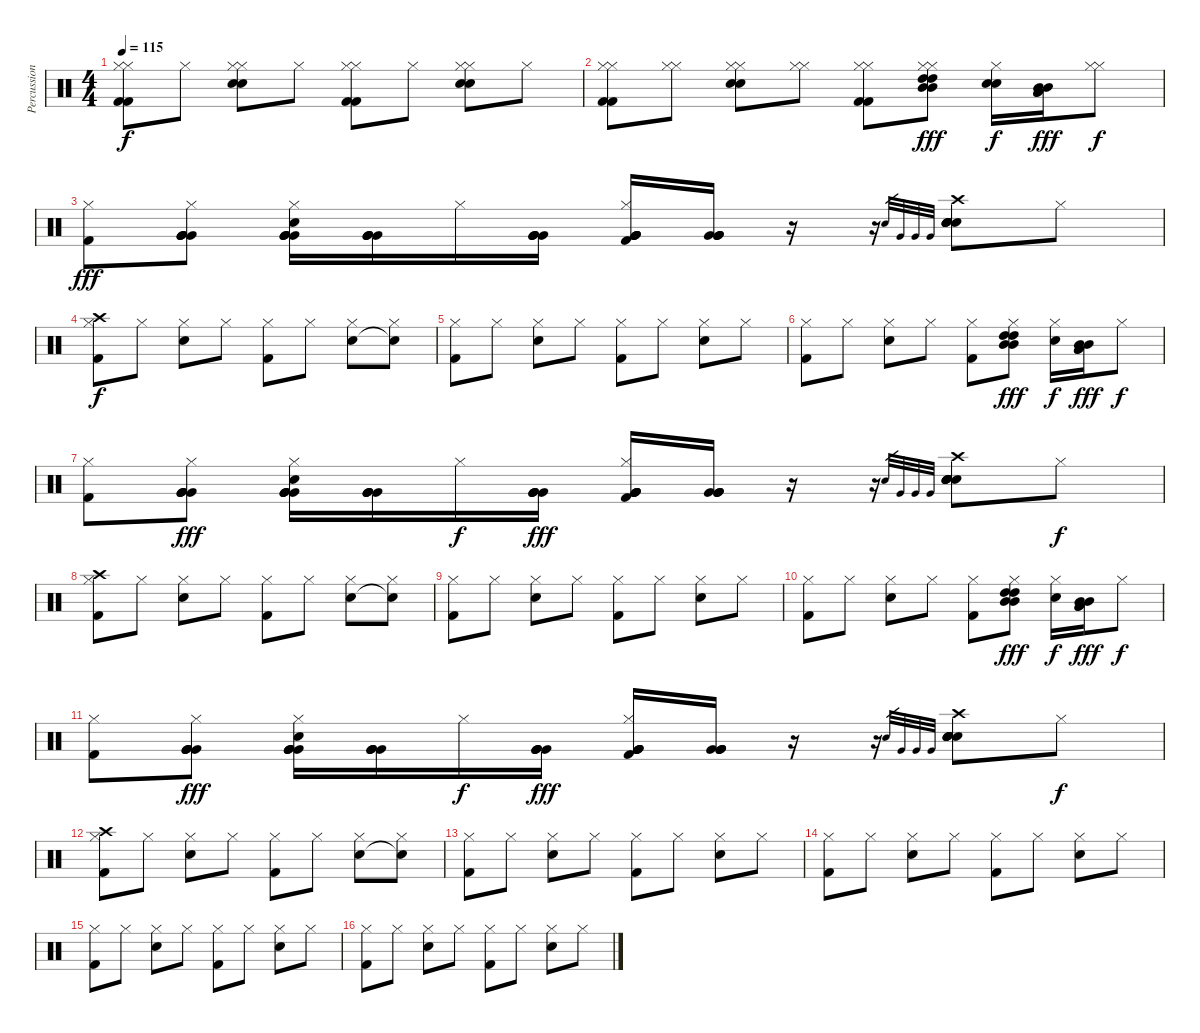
\track ("Percussion" "Percussion") {instrument percussion}
\staff {score}
\articulation defaults
\ts (4 4)
\tempo 115
\clef neutral
\ks c
("Kick (hit) 2" "Kick (hit) 2" "Hi-Hat (closed)" "Hi-Hat (closed)").8{dy f} "Hi-Hat (closed)".8 ("Electric Snare (hit)" "Electric Snare (hit)" "Hi-Hat (closed)" "Hi-Hat (closed)").8 "Hi-Hat (closed)".8 ("Kick (hit) 2" "Kick (hit) 2" "Hi-Hat (closed)" "Hi-Hat (closed)").8 "Hi-Hat (closed)".8 ("Electric Snare (hit)" "Electric Snare (hit)" "Hi-Hat (closed)" "Hi-Hat (closed)").8 "Hi-Hat (closed)".8 |
("Hi-Hat (closed)" "Kick (hit) 2" "Kick (hit) 2" "Hi-Hat (closed)").8 ("Hi-Hat (closed)" "Hi-Hat (closed)").8 ("Hi-Hat (closed)" "Electric Snare (hit)" "Electric Snare (hit)" "Hi-Hat (closed)").8 ("Hi-Hat (closed)" "Hi-Hat (closed)").8 ("Hi-Hat (closed)" "Kick (hit) 2" "Kick (hit) 2" "Hi-Hat (closed)").8 ("Hi-Hat (closed)" "Hi-Hat (closed)" "High Tom (hit)" "High Tom (hit)" "Mid Tom (hit)" "Mid Tom (hit)").8{dy fff} ("Hi-Hat (closed)" "Electric Snare (hit)" "Electric Snare (hit)").16{dy f} ("Mid Tom (hit)" "Mid Tom (hit)" "Low Tom (hit)" "Low Tom (hit)").16{dy fff} ("Hi-Hat (closed)" "Hi-Hat (closed)").8{dy f} |
("Hi-Hat (closed)" "Kick (hit) 2").8{dy fff} ("Hi-Hat (closed)" "Very Low Tom (hit)" "Very Low Tom (hit)" "Very Low Tom (hit)" "Very Low Tom (hit)").8 ("Hi-Hat (closed)" "Electric Snare (hit)" "Very Low Tom (hit)" "Very Low Tom (hit)" "Very Low Tom (hit)" "Very Low Tom (hit)").16 ("Very Low Tom (hit)" "Very Low Tom (hit)" "Very Low Tom (hit)" "Very Low Tom (hit)").16 "Hi-Hat (closed)".16 ("Very Low Tom (hit)" "Very Low Tom (hit)" "Very Low Tom (hit)" "Very Low Tom (hit)").16 ("Hi-Hat (closed)" "Kick (hit) 2" "Very Low Tom (hit)" "Very Low Tom (hit)" "Very Low Tom (hit)" "Very Low Tom (hit)").16 ("Very Low Tom (hit)" "Very Low Tom (hit)" "Very Low Tom (hit)" "Very Low Tom (hit)").16 r.16 r.16 "Snare (hit)".32{gr} "Very Low Tom (hit)".32{gr} "Very Low Tom (hit)".32{gr} "Very Low Tom (hit)".32{gr} ("Crash high (hit)" "Electric Snare (hit)" "Electric Snare (hit)" "Electric Snare (hit)" "Electric Snare (hit)" "Electric Snare (hit)").8 "Hi-Hat (closed)".8 |
("Hi-Hat (closed)" "Kick (hit) 2" "Crash high (hit)").8{dy f} "Hi-Hat (closed)".8 ("Hi-Hat (closed)" "Electric Snare (hit)").8 "Hi-Hat (closed)".8 ("Hi-Hat (closed)" "Kick (hit) 2").8 "Hi-Hat (closed)".8 ("Hi-Hat (closed)" "Electric Snare (hit)").8 ("Hi-Hat (closed)" "Snare (hit)"{t}).8 |
("Hi-Hat (closed)" "Kick (hit) 2").8 "Hi-Hat (closed)".8 ("Hi-Hat (closed)" "Electric Snare (hit)").8 "Hi-Hat (closed)".8 ("Hi-Hat (closed)" "Kick (hit) 2").8 "Hi-Hat (closed)".8 ("Hi-Hat (closed)" "Electric Snare (hit)").8 "Hi-Hat (closed)".8 |
("Hi-Hat (closed)" "Kick (hit) 2").8 "Hi-Hat (closed)".8 ("Hi-Hat (closed)" "Electric Snare (hit)").8 "Hi-Hat (closed)".8 ("Hi-Hat (closed)" "Kick (hit) 2").8 ("Hi-Hat (closed)" "High Tom (hit)" "High Tom (hit)" "Mid Tom (hit)" "Mid Tom (hit)").8{dy fff} ("Hi-Hat (closed)" "Electric Snare (hit)").16{dy f} ("Mid Tom (hit)" "Mid Tom (hit)" "Low Tom (hit)" "Low Tom (hit)").16{dy fff} "Hi-Hat (closed)".8{dy f} |
("Hi-Hat (closed)" "Kick (hit) 2").8 ("Hi-Hat (closed)" "Very Low Tom (hit)" "Very Low Tom (hit)" "Very Low Tom (hit)" "Very Low Tom (hit)").8{dy fff} ("Hi-Hat (closed)" "Electric Snare (hit)" "Very Low Tom (hit)" "Very Low Tom (hit)" "Very Low Tom (hit)" "Very Low Tom (hit)").16 ("Very Low Tom (hit)" "Very Low Tom (hit)" "Very Low Tom (hit)" "Very Low Tom (hit)").16 "Hi-Hat (closed)".16{dy f} ("Very Low Tom (hit)" "Very Low Tom (hit)" "Very Low Tom (hit)" "Very Low Tom (hit)").16{dy fff} ("Hi-Hat (closed)" "Kick (hit) 2" "Very Low Tom (hit)" "Very Low Tom (hit)" "Very Low Tom (hit)" "Very Low Tom (hit)").16 ("Very Low Tom (hit)" "Very Low Tom (hit)" "Very Low Tom (hit)" "Very Low Tom (hit)").16 r.16 r.16 "Snare (hit)".32{gr} "Very Low Tom (hit)".32{gr} "Very Low Tom (hit)".32{gr} "Very Low Tom (hit)".32{gr} ("Crash high (hit)" "Electric Snare (hit)" "Electric Snare (hit)" "Electric Snare (hit)" "Electric Snare (hit)" "Electric Snare (hit)").8 "Hi-Hat (closed)".8{dy f} |
("Hi-Hat (closed)" "Kick (hit) 2" "Crash high (hit)").8 "Hi-Hat (closed)".8 ("Hi-Hat (closed)" "Electric Snare (hit)").8 "Hi-Hat (closed)".8 ("Hi-Hat (closed)" "Kick (hit) 2").8 "Hi-Hat (closed)".8 ("Hi-Hat (closed)" "Electric Snare (hit)").8 ("Hi-Hat (closed)" "Snare (hit)"{t}).8 |
("Hi-Hat (closed)" "Kick (hit) 2").8 "Hi-Hat (closed)".8 ("Hi-Hat (closed)" "Electric Snare (hit)").8 "Hi-Hat (closed)".8 ("Hi-Hat (closed)" "Kick (hit) 2").8 "Hi-Hat (closed)".8 ("Hi-Hat (closed)" "Electric Snare (hit)").8 "Hi-Hat (closed)".8 |
("Hi-Hat (closed)" "Kick (hit) 2").8 "Hi-Hat (closed)".8 ("Hi-Hat (closed)" "Electric Snare (hit)").8 "Hi-Hat (closed)".8 ("Hi-Hat (closed)" "Kick (hit) 2").8 ("Hi-Hat (closed)" "High Tom (hit)" "High Tom (hit)" "Mid Tom (hit)" "Mid Tom (hit)").8{dy fff} ("Hi-Hat (closed)" "Electric Snare (hit)").16{dy f} ("Mid Tom (hit)" "Mid Tom (hit)" "Low Tom (hit)" "Low Tom (hit)").16{dy fff} "Hi-Hat (closed)".8{dy f} |
("Hi-Hat (closed)" "Kick (hit) 2").8 ("Hi-Hat (closed)" "Very Low Tom (hit)" "Very Low Tom (hit)" "Very Low Tom (hit)" "Very Low Tom (hit)").8{dy fff} ("Hi-Hat (closed)" "Electric Snare (hit)" "Very Low Tom (hit)" "Very Low Tom (hit)" "Very Low Tom (hit)" "Very Low Tom (hit)").16 ("Very Low Tom (hit)" "Very Low Tom (hit)" "Very Low Tom (hit)" "Very Low Tom (hit)").16 "Hi-Hat (closed)".16{dy f} ("Very Low Tom (hit)" "Very Low Tom (hit)" "Very Low Tom (hit)" "Very Low Tom (hit)").16{dy fff} ("Hi-Hat (closed)" "Kick (hit) 2" "Very Low Tom (hit)" "Very Low Tom (hit)" "Very Low Tom (hit)" "Very Low Tom (hit)").16 ("Very Low Tom (hit)" "Very Low Tom (hit)" "Very Low Tom (hit)" "Very Low Tom (hit)").16 r.16 r.16 "Snare (hit)".32{gr} "Very Low Tom (hit)".32{gr} "Very Low Tom (hit)".32{gr} "Very Low Tom (hit)".32{gr} ("Crash high (hit)" "Electric Snare (hit)" "Electric Snare (hit)" "Electric Snare (hit)" "Electric Snare (hit)" "Electric Snare (hit)").8 "Hi-Hat (closed)".8{dy f} |
("Hi-Hat (closed)" "Kick (hit) 2" "Crash high (hit)").8 "Hi-Hat (closed)".8 ("Hi-Hat (closed)" "Electric Snare (hit)").8 "Hi-Hat (closed)".8 ("Hi-Hat (closed)" "Kick (hit) 2").8 "Hi-Hat (closed)".8 ("Hi-Hat (closed)" "Electric Snare (hit)").8 ("Hi-Hat (closed)" "Snare (hit)"{t}).8 |
("Hi-Hat (closed)" "Kick (hit) 2").8 "Hi-Hat (closed)".8 ("Hi-Hat (closed)" "Electric Snare (hit)").8 "Hi-Hat (closed)".8 ("Hi-Hat (closed)" "Kick (hit) 2").8 "Hi-Hat (closed)".8 ("Hi-Hat (closed)" "Electric Snare (hit)").8 "Hi-Hat (closed)".8 |
("Hi-Hat (closed)" "Kick (hit) 2").8 "Hi-Hat (closed)".8 ("Hi-Hat (closed)" "Electric Snare (hit)").8 "Hi-Hat (closed)".8 ("Hi-Hat (closed)" "Kick (hit) 2").8 "Hi-Hat (closed)".8 ("Hi-Hat (closed)" "Electric Snare (hit)").8 "Hi-Hat (closed)".8 |
("Hi-Hat (closed)" "Kick (hit) 2").8 "Hi-Hat (closed)".8 ("Hi-Hat (closed)" "Electric Snare (hit)").8 "Hi-Hat (closed)".8 ("Hi-Hat (closed)" "Kick (hit) 2").8 "Hi-Hat (closed)".8 ("Hi-Hat (closed)" "Electric Snare (hit)").8 "Hi-Hat (closed)".8 |
("Hi-Hat (closed)" "Kick (hit) 2").8 "Hi-Hat (closed)".8 ("Hi-Hat (closed)" "Electric Snare (hit)").8 "Hi-Hat (closed)".8 ("Hi-Hat (closed)" "Kick (hit) 2").8 "Hi-Hat (closed)".8 ("Hi-Hat (closed)" "Electric Snare (hit)").8 "Hi-Hat (closed)".8
